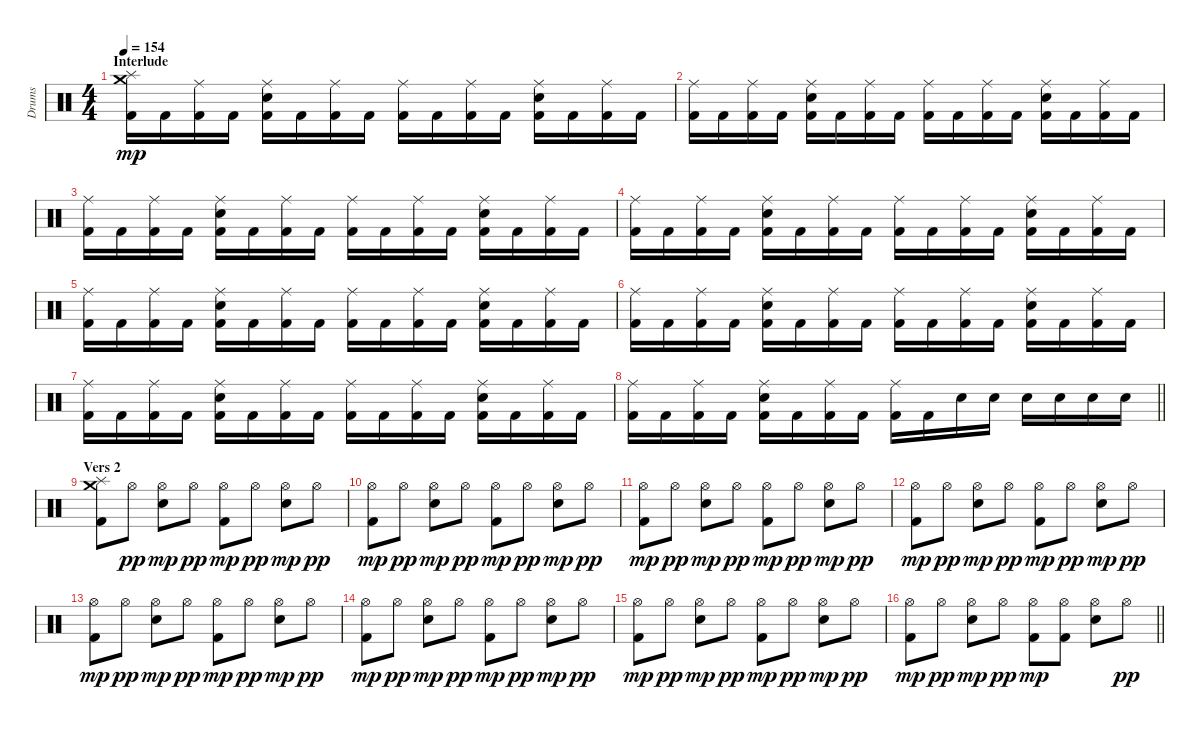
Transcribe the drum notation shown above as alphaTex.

\track ("Drums" "Drums") {instrument percussion}
\staff {score}
\articulation defaults
\ts (4 4)
\section ("" "Interlude")
\tempo 154
\clef neutral
\ks c
("Crash medium (hit)" "Splash (hit)" "Kick (hit) 2").16{dy mp} "Kick (hit) 2".16 ("Ride (middle)" "Kick (hit) 2").16 "Kick (hit) 2".16 ("Ride (middle)" "Electric Snare (hit)" "Kick (hit) 2").16 "Kick (hit) 2".16 ("Ride (middle)" "Kick (hit) 2").16 "Kick (hit) 2".16 ("Ride (middle)" "Kick (hit) 2").16 "Kick (hit) 2".16 ("Ride (middle)" "Kick (hit) 2").16 "Kick (hit) 2".16 ("Ride (middle)" "Electric Snare (hit)" "Kick (hit) 2").16 "Kick (hit) 2".16 ("Ride (middle)" "Kick (hit) 2").16 "Kick (hit) 2".16 |
("Ride (middle)" "Kick (hit) 2").16 "Kick (hit) 2".16 ("Ride (middle)" "Kick (hit) 2").16 "Kick (hit) 2".16 ("Ride (middle)" "Electric Snare (hit)" "Kick (hit) 2").16 "Kick (hit) 2".16 ("Ride (middle)" "Kick (hit) 2").16 "Kick (hit) 2".16 ("Ride (middle)" "Kick (hit) 2").16 "Kick (hit) 2".16 ("Ride (middle)" "Kick (hit) 2").16 "Kick (hit) 2".16 ("Ride (middle)" "Electric Snare (hit)" "Kick (hit) 2").16 "Kick (hit) 2".16 ("Ride (middle)" "Kick (hit) 2").16 "Kick (hit) 2".16 |
("Ride (middle)" "Kick (hit) 2").16 "Kick (hit) 2".16 ("Ride (middle)" "Kick (hit) 2").16 "Kick (hit) 2".16 ("Ride (middle)" "Electric Snare (hit)" "Kick (hit) 2").16 "Kick (hit) 2".16 ("Ride (middle)" "Kick (hit) 2").16 "Kick (hit) 2".16 ("Ride (middle)" "Kick (hit) 2").16 "Kick (hit) 2".16 ("Ride (middle)" "Kick (hit) 2").16 "Kick (hit) 2".16 ("Ride (middle)" "Electric Snare (hit)" "Kick (hit) 2").16 "Kick (hit) 2".16 ("Ride (middle)" "Kick (hit) 2").16 "Kick (hit) 2".16 |
("Ride (middle)" "Kick (hit) 2").16 "Kick (hit) 2".16 ("Ride (middle)" "Kick (hit) 2").16 "Kick (hit) 2".16 ("Ride (middle)" "Electric Snare (hit)" "Kick (hit) 2").16 "Kick (hit) 2".16 ("Ride (middle)" "Kick (hit) 2").16 "Kick (hit) 2".16 ("Ride (middle)" "Kick (hit) 2").16 "Kick (hit) 2".16 ("Ride (middle)" "Kick (hit) 2").16 "Kick (hit) 2".16 ("Ride (middle)" "Electric Snare (hit)" "Kick (hit) 2").16 "Kick (hit) 2".16 ("Ride (middle)" "Kick (hit) 2").16 "Kick (hit) 2".16 |
("Ride (middle)" "Kick (hit) 2").16 "Kick (hit) 2".16 ("Ride (middle)" "Kick (hit) 2").16 "Kick (hit) 2".16 ("Ride (middle)" "Electric Snare (hit)" "Kick (hit) 2").16 "Kick (hit) 2".16 ("Ride (middle)" "Kick (hit) 2").16 "Kick (hit) 2".16 ("Ride (middle)" "Kick (hit) 2").16 "Kick (hit) 2".16 ("Ride (middle)" "Kick (hit) 2").16 "Kick (hit) 2".16 ("Ride (middle)" "Electric Snare (hit)" "Kick (hit) 2").16 "Kick (hit) 2".16 ("Ride (middle)" "Kick (hit) 2").16 "Kick (hit) 2".16 |
("Ride (middle)" "Kick (hit) 2").16 "Kick (hit) 2".16 ("Ride (middle)" "Kick (hit) 2").16 "Kick (hit) 2".16 ("Ride (middle)" "Electric Snare (hit)" "Kick (hit) 2").16 "Kick (hit) 2".16 ("Ride (middle)" "Kick (hit) 2").16 "Kick (hit) 2".16 ("Ride (middle)" "Kick (hit) 2").16 "Kick (hit) 2".16 ("Ride (middle)" "Kick (hit) 2").16 "Kick (hit) 2".16 ("Ride (middle)" "Electric Snare (hit)" "Kick (hit) 2").16 "Kick (hit) 2".16 ("Ride (middle)" "Kick (hit) 2").16 "Kick (hit) 2".16 |
("Ride (middle)" "Kick (hit) 2").16 "Kick (hit) 2".16 ("Ride (middle)" "Kick (hit) 2").16 "Kick (hit) 2".16 ("Ride (middle)" "Electric Snare (hit)" "Kick (hit) 2").16 "Kick (hit) 2".16 ("Ride (middle)" "Kick (hit) 2").16 "Kick (hit) 2".16 ("Ride (middle)" "Kick (hit) 2").16 "Kick (hit) 2".16 ("Ride (middle)" "Kick (hit) 2").16 "Kick (hit) 2".16 ("Ride (middle)" "Electric Snare (hit)" "Kick (hit) 2").16 "Kick (hit) 2".16 ("Ride (middle)" "Kick (hit) 2").16 "Kick (hit) 2".16 |
\barLineRight lightlight
("Ride (middle)" "Kick (hit) 2").16 "Kick (hit) 2".16 ("Ride (middle)" "Kick (hit) 2").16 "Kick (hit) 2".16 ("Ride (middle)" "Electric Snare (hit)" "Kick (hit) 2").16 "Kick (hit) 2".16 ("Ride (middle)" "Kick (hit) 2").16 "Kick (hit) 2".16 ("Ride (middle)" "Kick (hit) 2").16 "Kick (hit) 2".16 "Electric Snare (hit)".16 "Electric Snare (hit)".16 "Electric Snare (hit)".16 "Electric Snare (hit)".16 "Electric Snare (hit)".16 "Electric Snare (hit)".16 |
\section ("" "Vers 2")
("Crash medium (hit)" "Splash (hit)" "Kick (hit) 2").8 "Hi-Hat (open)".8{dy pp} ("Hi-Hat (open)" "Electric Snare (hit)").8{dy mp} "Hi-Hat (open)".8{dy pp} ("Hi-Hat (open)" "Kick (hit) 2").8{dy mp} "Hi-Hat (open)".8{dy pp} ("Hi-Hat (open)" "Electric Snare (hit)").8{dy mp} "Hi-Hat (open)".8{dy pp} |
("Hi-Hat (open)" "Kick (hit) 2").8{dy mp} "Hi-Hat (open)".8{dy pp} ("Hi-Hat (open)" "Electric Snare (hit)").8{dy mp} "Hi-Hat (open)".8{dy pp} ("Hi-Hat (open)" "Kick (hit) 2").8{dy mp} "Hi-Hat (open)".8{dy pp} ("Hi-Hat (open)" "Electric Snare (hit)").8{dy mp} "Hi-Hat (open)".8{dy pp} |
("Hi-Hat (open)" "Kick (hit) 2").8{dy mp} "Hi-Hat (open)".8{dy pp} ("Hi-Hat (open)" "Electric Snare (hit)").8{dy mp} "Hi-Hat (open)".8{dy pp} ("Hi-Hat (open)" "Kick (hit) 2").8{dy mp} "Hi-Hat (open)".8{dy pp} ("Hi-Hat (open)" "Electric Snare (hit)").8{dy mp} "Hi-Hat (open)".8{dy pp} |
("Hi-Hat (open)" "Kick (hit) 2").8{dy mp} "Hi-Hat (open)".8{dy pp} ("Hi-Hat (open)" "Electric Snare (hit)").8{dy mp} "Hi-Hat (open)".8{dy pp} ("Hi-Hat (open)" "Kick (hit) 2").8{dy mp} "Hi-Hat (open)".8{dy pp} ("Hi-Hat (open)" "Electric Snare (hit)").8{dy mp} "Hi-Hat (open)".8{dy pp} |
("Hi-Hat (open)" "Kick (hit) 2").8{dy mp} "Hi-Hat (open)".8{dy pp} ("Hi-Hat (open)" "Electric Snare (hit)").8{dy mp} "Hi-Hat (open)".8{dy pp} ("Hi-Hat (open)" "Kick (hit) 2").8{dy mp} "Hi-Hat (open)".8{dy pp} ("Hi-Hat (open)" "Electric Snare (hit)").8{dy mp} "Hi-Hat (open)".8{dy pp} |
("Hi-Hat (open)" "Kick (hit) 2").8{dy mp} "Hi-Hat (open)".8{dy pp} ("Hi-Hat (open)" "Electric Snare (hit)").8{dy mp} "Hi-Hat (open)".8{dy pp} ("Hi-Hat (open)" "Kick (hit) 2").8{dy mp} "Hi-Hat (open)".8{dy pp} ("Hi-Hat (open)" "Electric Snare (hit)").8{dy mp} "Hi-Hat (open)".8{dy pp} |
("Hi-Hat (open)" "Kick (hit) 2").8{dy mp} "Hi-Hat (open)".8{dy pp} ("Hi-Hat (open)" "Electric Snare (hit)").8{dy mp} "Hi-Hat (open)".8{dy pp} ("Hi-Hat (open)" "Kick (hit) 2").8{dy mp} "Hi-Hat (open)".8{dy pp} ("Hi-Hat (open)" "Electric Snare (hit)").8{dy mp} "Hi-Hat (open)".8{dy pp} |
\barLineRight lightlight
("Hi-Hat (open)" "Kick (hit) 2").8{dy mp} "Hi-Hat (open)".8{dy pp} ("Hi-Hat (open)" "Electric Snare (hit)").8{dy mp} "Hi-Hat (open)".8{dy pp} ("Hi-Hat (open)" "Kick (hit) 2").8{dy mp} ("Hi-Hat (open)" "Kick (hit) 2").8 ("Hi-Hat (open)" "Electric Snare (hit)").8 "Hi-Hat (open)".8{dy pp}
